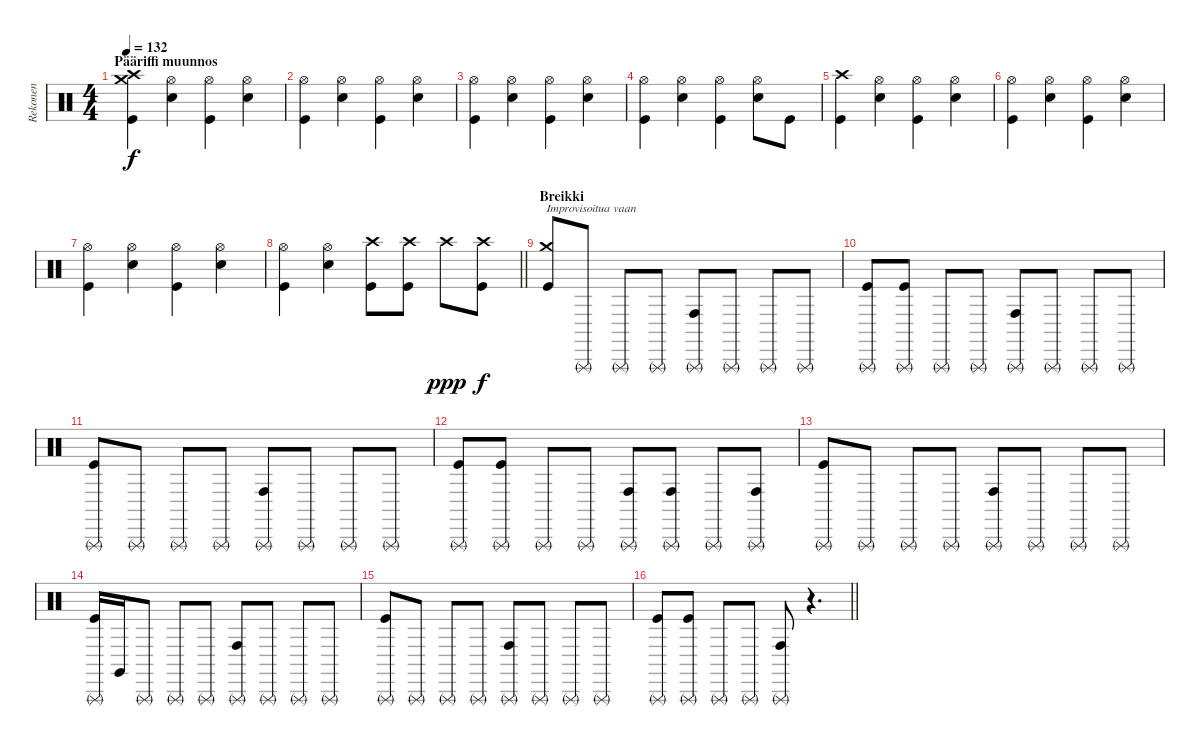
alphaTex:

\track ("Rekonen" "Rekonen") {instrument percussion}
\staff {score}
\articulation defaults
\ts (4 4)
\section ("" "Pääriffi muunnos")
\tempo 132
\clef neutral
\ks c
("Kick (hit)" "Crash high (hit)" "Crash medium (hit)").4{dy f} ("Electric Snare (hit)" "Hi-Hat (open)").4 ("Kick (hit)" "Hi-Hat (open)").4 ("Electric Snare (hit)" "Hi-Hat (open)").4 |
("Kick (hit)" "Hi-Hat (open)").4 ("Electric Snare (hit)" "Hi-Hat (open)").4 ("Kick (hit)" "Hi-Hat (open)").4 ("Electric Snare (hit)" "Hi-Hat (open)").4 |
("Kick (hit)" "Hi-Hat (open)").4 ("Electric Snare (hit)" "Hi-Hat (open)").4 ("Kick (hit)" "Hi-Hat (open)").4 ("Electric Snare (hit)" "Hi-Hat (open)").4 |
("Kick (hit)" "Hi-Hat (open)").4 ("Electric Snare (hit)" "Hi-Hat (open)").4 ("Kick (hit)" "Hi-Hat (open)").4 ("Electric Snare (hit)" "Hi-Hat (open)").8 "Kick (hit)".8 |
("Kick (hit)" "Crash high (hit)").4 ("Electric Snare (hit)" "Hi-Hat (open)").4 ("Kick (hit)" "Hi-Hat (open)").4 ("Electric Snare (hit)" "Hi-Hat (open)").4 |
("Kick (hit)" "Hi-Hat (open)").4 ("Electric Snare (hit)" "Hi-Hat (open)").4 ("Kick (hit)" "Hi-Hat (open)").4 ("Electric Snare (hit)" "Hi-Hat (open)").4 |
("Kick (hit)" "Hi-Hat (open)").4 ("Electric Snare (hit)" "Hi-Hat (open)").4 ("Kick (hit)" "Hi-Hat (open)").4 ("Electric Snare (hit)" "Hi-Hat (open)").4 |
\barLineRight lightlight
("Kick (hit)" "Hi-Hat (open)").4 ("Electric Snare (hit)" "Hi-Hat (open)").4 ("Kick (hit)" "Crash high (hit)").8 ("Kick (hit)" "Crash high (hit)").8 "Crash high (hit)".8{dy ppp} ("Kick (hit)" "Crash high (hit)").8{dy f} |
\section ("" "Breikki")
("Kick (hit)" "Crash medium (hit)").8{txt "Improvisoitua vaan"} "Triangle (rnute)".8 "Triangle (rnute)".8 "Triangle (rnute)".8 ("Conga high (hit)" "Triangle (rnute)").8 "Triangle (rnute)".8 "Triangle (rnute)".8 "Triangle (rnute)".8 |
("Kick (hit)" "Triangle (rnute)").8 ("Kick (hit)" "Triangle (rnute)").8 "Triangle (rnute)".8 "Triangle (rnute)".8 ("Conga high (hit)" "Triangle (rnute)").8 "Triangle (rnute)".8 "Triangle (rnute)".8 "Triangle (rnute)".8 |
("Kick (hit)" "Triangle (rnute)").8 "Triangle (rnute)".8 "Triangle (rnute)".8 "Triangle (rnute)".8 ("Conga high (hit)" "Triangle (rnute)").8 "Triangle (rnute)".8 "Triangle (rnute)".8 "Triangle (rnute)".8 |
("Kick (hit)" "Triangle (rnute)").8 ("Kick (hit)" "Triangle (rnute)").8 "Triangle (rnute)".8 "Triangle (rnute)".8 ("Conga high (hit)" "Triangle (rnute)").8 ("Conga high (hit)" "Triangle (rnute)").8 "Triangle (rnute)".8 ("Conga high (hit)" "Triangle (rnute)").8 |
("Kick (hit)" "Triangle (rnute)").8 "Triangle (rnute)".8 "Triangle (rnute)".8 "Triangle (rnute)".8 ("Conga high (hit)" "Triangle (rnute)").8 "Triangle (rnute)".8 "Triangle (rnute)".8 "Triangle (rnute)".8 |
("Kick (hit)" "Triangle (rnute)").16 "Claves (hit)".16 "Triangle (rnute)".8 "Triangle (rnute)".8 "Triangle (rnute)".8 ("Conga high (hit)" "Triangle (rnute)").8 "Triangle (rnute)".8 "Triangle (rnute)".8 "Triangle (rnute)".8 |
("Kick (hit)" "Triangle (rnute)").8 "Triangle (rnute)".8 "Triangle (rnute)".8 "Triangle (rnute)".8 ("Conga high (hit)" "Triangle (rnute)").8 "Triangle (rnute)".8 "Triangle (rnute)".8 "Triangle (rnute)".8 |
\barLineRight lightlight
("Kick (hit)" "Triangle (rnute)").8 ("Kick (hit)" "Triangle (rnute)").8 "Triangle (rnute)".8 "Triangle (rnute)".8 ("Conga high (hit)" "Triangle (rnute)").8 r.4{d}
